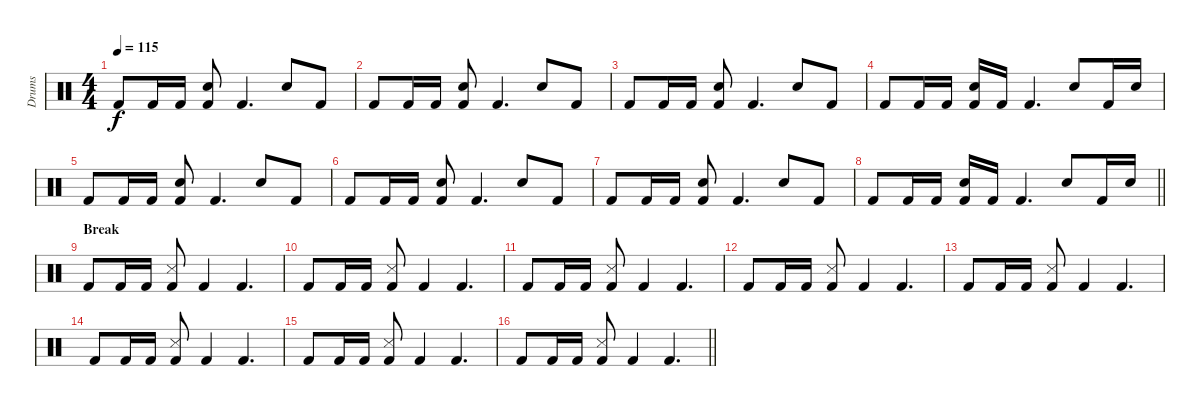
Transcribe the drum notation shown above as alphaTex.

\track ("Drums" "Drums") {instrument percussion}
\staff {score}
\articulation defaults
\ts (4 4)
\tempo 115
\clef neutral
\ks c "Kick (hit) 2".8{dy f} "Kick (hit) 2".16 "Kick (hit) 2".16
("Electric Snare (hit)" "Kick (hit) 2").8 "Kick (hit) 2".4{d} "Electric Snare (hit)".8 "Kick (hit) 2".8 |
"Kick (hit) 2".8 "Kick (hit) 2".16 "Kick (hit) 2".16 ("Electric Snare (hit)" "Kick (hit) 2").8 "Kick (hit) 2".4{d} "Electric Snare (hit)".8 "Kick (hit) 2".8 |
"Kick (hit) 2".8 "Kick (hit) 2".16 "Kick (hit) 2".16 ("Electric Snare (hit)" "Kick (hit) 2").8 "Kick (hit) 2".4{d} "Electric Snare (hit)".8 "Kick (hit) 2".8 |
"Kick (hit) 2".8 "Kick (hit) 2".16 "Kick (hit) 2".16 ("Electric Snare (hit)" "Kick (hit) 2").16 "Kick (hit) 2".16 "Kick (hit) 2".4{d} "Electric Snare (hit)".8 "Kick (hit) 2".16 "Electric Snare (hit)".16 |
"Kick (hit) 2".8 "Kick (hit) 2".16 "Kick (hit) 2".16 ("Electric Snare (hit)" "Kick (hit) 2").8 "Kick (hit) 2".4{d} "Electric Snare (hit)".8 "Kick (hit) 2".8 |
"Kick (hit) 2".8 "Kick (hit) 2".16 "Kick (hit) 2".16 ("Electric Snare (hit)" "Kick (hit) 2").8 "Kick (hit) 2".4{d} "Electric Snare (hit)".8 "Kick (hit) 2".8 |
"Kick (hit) 2".8 "Kick (hit) 2".16 "Kick (hit) 2".16 ("Electric Snare (hit)" "Kick (hit) 2").8 "Kick (hit) 2".4{d} "Electric Snare (hit)".8 "Kick (hit) 2".8 |
\barLineRight lightlight "Kick (hit) 2".8 "Kick (hit) 2".16 "Kick (hit) 2".16
("Electric Snare (hit)" "Kick (hit) 2").16 "Kick (hit) 2".16 "Kick (hit) 2".4{d} "Electric Snare (hit)".8 "Kick (hit) 2".16 "Electric Snare (hit)".16 |
\section ("" "Break")
"Kick (hit) 2".8 "Kick (hit) 2".16 "Kick (hit) 2".16 ("Snare (side stick) 3" "Kick (hit) 2").8 "Kick (hit) 2".4 "Kick (hit) 2".4{d} |
"Kick (hit) 2".8 "Kick (hit) 2".16 "Kick (hit) 2".16 ("Snare (side stick) 3" "Kick (hit) 2").8 "Kick (hit) 2".4 "Kick (hit) 2".4{d} |
"Kick (hit) 2".8 "Kick (hit) 2".16 "Kick (hit) 2".16 ("Snare (side stick) 3" "Kick (hit) 2").8 "Kick (hit) 2".4 "Kick (hit) 2".4{d} |
"Kick (hit) 2".8 "Kick (hit) 2".16 "Kick (hit) 2".16 ("Snare (side stick) 3" "Kick (hit) 2").8 "Kick (hit) 2".4 "Kick (hit) 2".4{d} |
"Kick (hit) 2".8 "Kick (hit) 2".16 "Kick (hit) 2".16 ("Snare (side stick) 3" "Kick (hit) 2").8 "Kick (hit) 2".4 "Kick (hit) 2".4{d} |
"Kick (hit) 2".8 "Kick (hit) 2".16 "Kick (hit) 2".16 ("Snare (side stick) 3" "Kick (hit) 2").8 "Kick (hit) 2".4 "Kick (hit) 2".4{d} |
"Kick (hit) 2".8 "Kick (hit) 2".16 "Kick (hit) 2".16 ("Snare (side stick) 3" "Kick (hit) 2").8 "Kick (hit) 2".4 "Kick (hit) 2".4{d} |
\barLineRight lightlight "Kick (hit) 2".8 "Kick (hit) 2".16 "Kick (hit) 2".16
("Snare (side stick) 3" "Kick (hit) 2").8 "Kick (hit) 2".4 "Kick (hit) 2".4{d}
